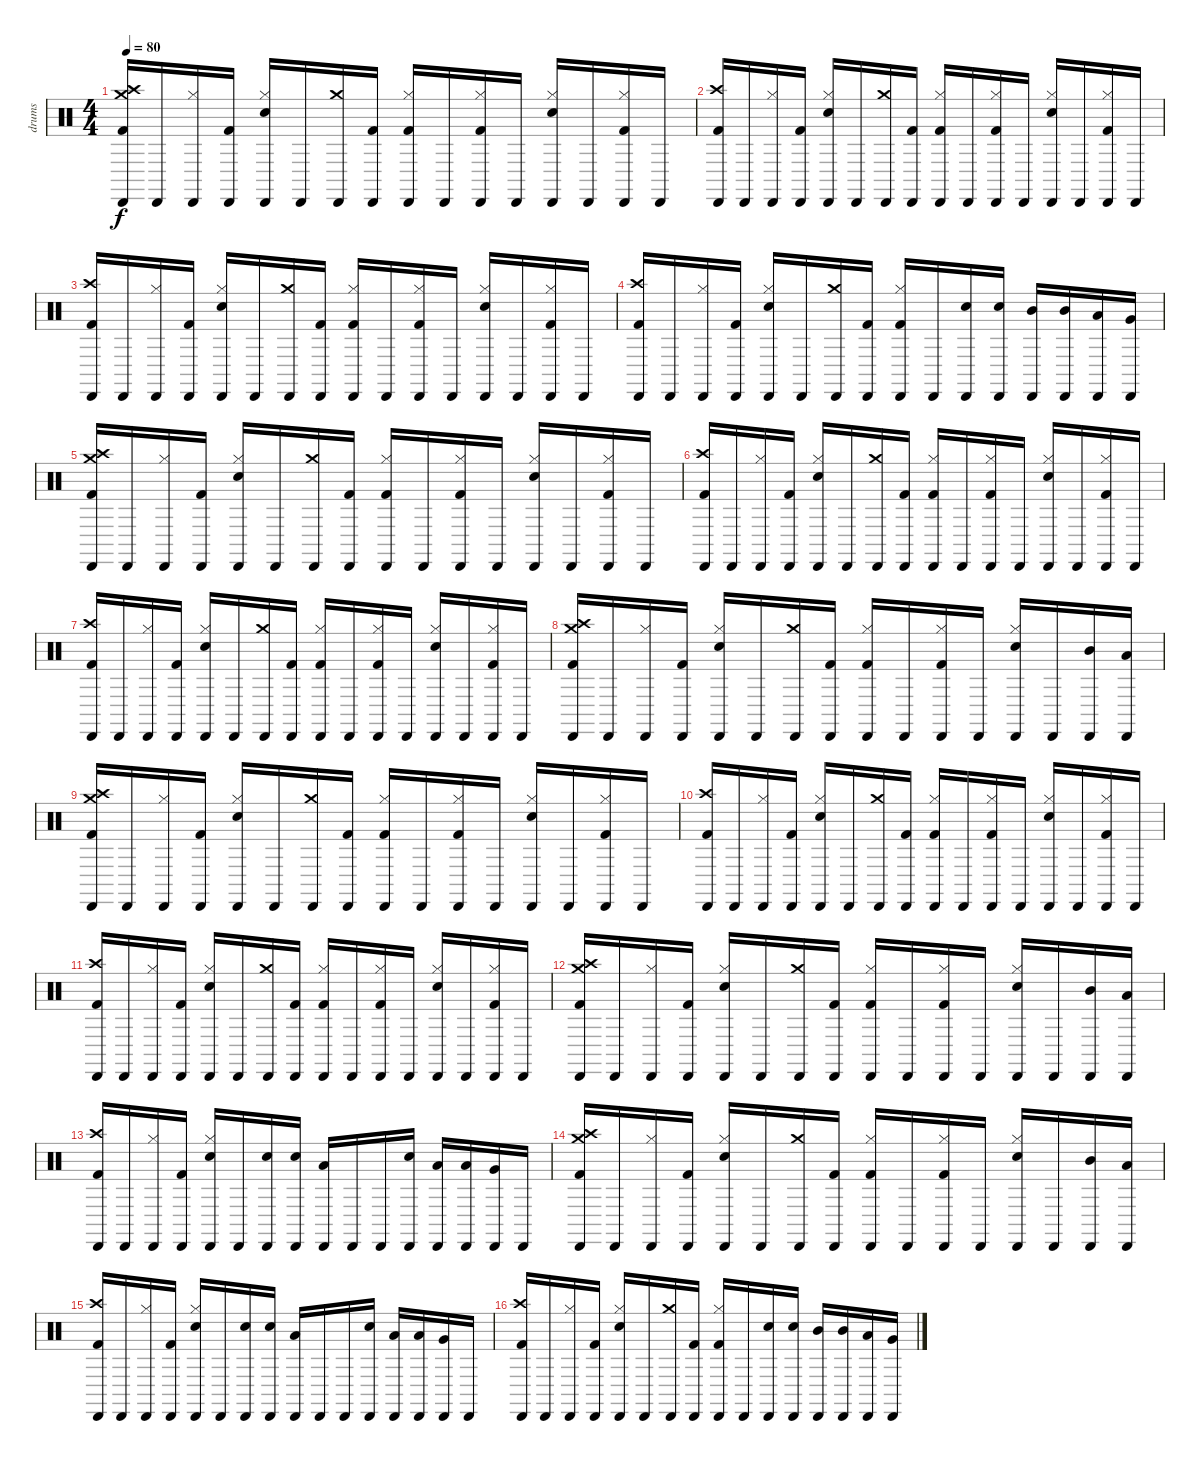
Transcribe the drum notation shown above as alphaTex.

\track ("drums" "drums") {instrument percussion}
\staff {score}
\articulation defaults
\ts (4 4)
\tempo 80
\clef neutral
\ks c
("Cabasa (hit)" "Crash high (hit)" "Kick (hit) 2" "Crash medium (hit)").16{dy f} "Cabasa (hit)".16 ("Cabasa (hit)" "Hi-Hat (closed)").16 ("Cabasa (hit)" "Kick (hit) 2").16 ("Cabasa (hit)" "Hi-Hat (closed)" "Electric Snare (hit)").16 "Cabasa (hit)".16 ("Cabasa (hit)" "Crash medium (hit)").16 ("Cabasa (hit)" "Kick (hit) 2").16 ("Cabasa (hit)" "Hi-Hat (closed)" "Kick (hit) 2").16 "Cabasa (hit)".16 ("Cabasa (hit)" "Hi-Hat (closed)" "Kick (hit) 2").16 "Cabasa (hit)".16 ("Cabasa (hit)" "Hi-Hat (closed)" "Electric Snare (hit)").16 "Cabasa (hit)".16 ("Cabasa (hit)" "Hi-Hat (closed)" "Kick (hit) 2").16 "Cabasa (hit)".16 |
("Cabasa (hit)" "Crash high (hit)" "Kick (hit) 2").16 "Cabasa (hit)".16 ("Cabasa (hit)" "Hi-Hat (closed)").16 ("Cabasa (hit)" "Kick (hit) 2").16 ("Cabasa (hit)" "Hi-Hat (closed)" "Electric Snare (hit)").16 "Cabasa (hit)".16 ("Cabasa (hit)" "Crash medium (hit)").16 ("Cabasa (hit)" "Kick (hit) 2").16 ("Cabasa (hit)" "Hi-Hat (closed)" "Kick (hit) 2").16 "Cabasa (hit)".16 ("Cabasa (hit)" "Hi-Hat (closed)" "Kick (hit) 2").16 "Cabasa (hit)".16 ("Cabasa (hit)" "Hi-Hat (closed)" "Electric Snare (hit)").16 "Cabasa (hit)".16 ("Cabasa (hit)" "Hi-Hat (closed)" "Kick (hit) 2").16 "Cabasa (hit)".16 |
("Cabasa (hit)" "Crash high (hit)" "Kick (hit) 2").16 "Cabasa (hit)".16 ("Cabasa (hit)" "Hi-Hat (closed)").16 ("Cabasa (hit)" "Kick (hit) 2").16 ("Cabasa (hit)" "Hi-Hat (closed)" "Electric Snare (hit)").16 "Cabasa (hit)".16 ("Cabasa (hit)" "Crash medium (hit)").16 ("Cabasa (hit)" "Kick (hit) 2").16 ("Cabasa (hit)" "Hi-Hat (closed)" "Kick (hit) 2").16 "Cabasa (hit)".16 ("Cabasa (hit)" "Hi-Hat (closed)" "Kick (hit) 2").16 "Cabasa (hit)".16 ("Cabasa (hit)" "Hi-Hat (closed)" "Electric Snare (hit)").16 "Cabasa (hit)".16 ("Cabasa (hit)" "Hi-Hat (closed)" "Kick (hit) 2").16 "Cabasa (hit)".16 |
("Cabasa (hit)" "Crash high (hit)" "Kick (hit) 2").16 "Cabasa (hit)".16 ("Cabasa (hit)" "Hi-Hat (closed)").16 ("Cabasa (hit)" "Kick (hit) 2").16 ("Cabasa (hit)" "Hi-Hat (closed)" "Electric Snare (hit)").16 "Cabasa (hit)".16 ("Cabasa (hit)" "Crash medium (hit)").16 ("Cabasa (hit)" "Kick (hit) 2").16 ("Cabasa (hit)" "Hi-Hat (closed)" "Kick (hit) 2").16 "Cabasa (hit)".16 ("Cabasa (hit)" "Electric Snare (hit)").16 ("Cabasa (hit)" "Electric Snare (hit)").16 ("Cabasa (hit)" "Mid Tom (hit)").16 ("Cabasa (hit)" "Mid Tom (hit)").16 ("Cabasa (hit)" "Low Tom (hit)").16 ("Cabasa (hit)" "Very Low Tom (hit)").16 |
("Cabasa (hit)" "Crash high (hit)" "Kick (hit) 2" "Crash medium (hit)").16 "Cabasa (hit)".16 ("Cabasa (hit)" "Hi-Hat (closed)").16 ("Cabasa (hit)" "Kick (hit) 2").16 ("Cabasa (hit)" "Hi-Hat (closed)" "Electric Snare (hit)").16 "Cabasa (hit)".16 ("Cabasa (hit)" "Crash medium (hit)").16 ("Cabasa (hit)" "Kick (hit) 2").16 ("Cabasa (hit)" "Hi-Hat (closed)" "Kick (hit) 2").16 "Cabasa (hit)".16 ("Cabasa (hit)" "Hi-Hat (closed)" "Kick (hit) 2").16 "Cabasa (hit)".16 ("Cabasa (hit)" "Hi-Hat (closed)" "Electric Snare (hit)").16 "Cabasa (hit)".16 ("Cabasa (hit)" "Hi-Hat (closed)" "Kick (hit) 2").16 "Cabasa (hit)".16 |
("Cabasa (hit)" "Crash high (hit)" "Kick (hit) 2").16 "Cabasa (hit)".16 ("Cabasa (hit)" "Hi-Hat (closed)").16 ("Cabasa (hit)" "Kick (hit) 2").16 ("Cabasa (hit)" "Hi-Hat (closed)" "Electric Snare (hit)").16 "Cabasa (hit)".16 ("Cabasa (hit)" "Crash medium (hit)").16 ("Cabasa (hit)" "Kick (hit) 2").16 ("Cabasa (hit)" "Hi-Hat (closed)" "Kick (hit) 2").16 "Cabasa (hit)".16 ("Cabasa (hit)" "Hi-Hat (closed)" "Kick (hit) 2").16 "Cabasa (hit)".16 ("Cabasa (hit)" "Hi-Hat (closed)" "Electric Snare (hit)").16 "Cabasa (hit)".16 ("Cabasa (hit)" "Hi-Hat (closed)" "Kick (hit) 2").16 "Cabasa (hit)".16 |
("Cabasa (hit)" "Crash high (hit)" "Kick (hit) 2").16 "Cabasa (hit)".16 ("Cabasa (hit)" "Hi-Hat (closed)").16 ("Cabasa (hit)" "Kick (hit) 2").16 ("Cabasa (hit)" "Hi-Hat (closed)" "Electric Snare (hit)").16 "Cabasa (hit)".16 ("Cabasa (hit)" "Crash medium (hit)").16 ("Cabasa (hit)" "Kick (hit) 2").16 ("Cabasa (hit)" "Hi-Hat (closed)" "Kick (hit) 2").16 "Cabasa (hit)".16 ("Cabasa (hit)" "Hi-Hat (closed)" "Kick (hit) 2").16 "Cabasa (hit)".16 ("Cabasa (hit)" "Hi-Hat (closed)" "Electric Snare (hit)").16 "Cabasa (hit)".16 ("Cabasa (hit)" "Hi-Hat (closed)" "Kick (hit) 2").16 "Cabasa (hit)".16 |
("Cabasa (hit)" "Crash high (hit)" "Kick (hit) 2" "Crash medium (hit)").16 "Cabasa (hit)".16 ("Cabasa (hit)" "Hi-Hat (closed)").16 ("Cabasa (hit)" "Kick (hit) 2").16 ("Cabasa (hit)" "Hi-Hat (closed)" "Electric Snare (hit)").16 "Cabasa (hit)".16 ("Cabasa (hit)" "Crash medium (hit)").16 ("Cabasa (hit)" "Kick (hit) 2").16 ("Cabasa (hit)" "Hi-Hat (closed)" "Kick (hit) 2").16 "Cabasa (hit)".16 ("Cabasa (hit)" "Hi-Hat (closed)" "Kick (hit) 2").16 "Cabasa (hit)".16 ("Cabasa (hit)" "Hi-Hat (closed)" "Electric Snare (hit)").16 "Cabasa (hit)".16 ("Cabasa (hit)" "Mid Tom (hit)").16 ("Cabasa (hit)" "Low Tom (hit)").16 |
("Cabasa (hit)" "Crash high (hit)" "Kick (hit) 2" "Crash medium (hit)").16 "Cabasa (hit)".16 ("Cabasa (hit)" "Hi-Hat (closed)").16 ("Cabasa (hit)" "Kick (hit) 2").16 ("Cabasa (hit)" "Hi-Hat (closed)" "Electric Snare (hit)").16 "Cabasa (hit)".16 ("Cabasa (hit)" "Crash medium (hit)").16 ("Cabasa (hit)" "Kick (hit) 2").16 ("Cabasa (hit)" "Hi-Hat (closed)" "Kick (hit) 2").16 "Cabasa (hit)".16 ("Cabasa (hit)" "Hi-Hat (closed)" "Kick (hit) 2").16 "Cabasa (hit)".16 ("Cabasa (hit)" "Hi-Hat (closed)" "Electric Snare (hit)").16 "Cabasa (hit)".16 ("Cabasa (hit)" "Hi-Hat (closed)" "Kick (hit) 2").16 "Cabasa (hit)".16 |
("Cabasa (hit)" "Crash high (hit)" "Kick (hit) 2").16 "Cabasa (hit)".16 ("Cabasa (hit)" "Hi-Hat (closed)").16 ("Cabasa (hit)" "Kick (hit) 2").16 ("Cabasa (hit)" "Hi-Hat (closed)" "Electric Snare (hit)").16 "Cabasa (hit)".16 ("Cabasa (hit)" "Crash medium (hit)").16 ("Cabasa (hit)" "Kick (hit) 2").16 ("Cabasa (hit)" "Hi-Hat (closed)" "Kick (hit) 2").16 "Cabasa (hit)".16 ("Cabasa (hit)" "Hi-Hat (closed)" "Kick (hit) 2").16 "Cabasa (hit)".16 ("Cabasa (hit)" "Hi-Hat (closed)" "Electric Snare (hit)").16 "Cabasa (hit)".16 ("Cabasa (hit)" "Hi-Hat (closed)" "Kick (hit) 2").16 "Cabasa (hit)".16 |
("Cabasa (hit)" "Crash high (hit)" "Kick (hit) 2").16 "Cabasa (hit)".16 ("Cabasa (hit)" "Hi-Hat (closed)").16 ("Cabasa (hit)" "Kick (hit) 2").16 ("Cabasa (hit)" "Hi-Hat (closed)" "Electric Snare (hit)").16 "Cabasa (hit)".16 ("Cabasa (hit)" "Crash medium (hit)").16 ("Cabasa (hit)" "Kick (hit) 2").16 ("Cabasa (hit)" "Hi-Hat (closed)" "Kick (hit) 2").16 "Cabasa (hit)".16 ("Cabasa (hit)" "Hi-Hat (closed)" "Kick (hit) 2").16 "Cabasa (hit)".16 ("Cabasa (hit)" "Hi-Hat (closed)" "Electric Snare (hit)").16 "Cabasa (hit)".16 ("Cabasa (hit)" "Hi-Hat (closed)" "Kick (hit) 2").16 "Cabasa (hit)".16 |
("Cabasa (hit)" "Crash high (hit)" "Kick (hit) 2" "Crash medium (hit)").16 "Cabasa (hit)".16 ("Cabasa (hit)" "Hi-Hat (closed)").16 ("Cabasa (hit)" "Kick (hit) 2").16 ("Cabasa (hit)" "Hi-Hat (closed)" "Electric Snare (hit)").16 "Cabasa (hit)".16 ("Cabasa (hit)" "Crash medium (hit)").16 ("Cabasa (hit)" "Kick (hit) 2").16 ("Cabasa (hit)" "Hi-Hat (closed)" "Kick (hit) 2").16 "Cabasa (hit)".16 ("Cabasa (hit)" "Hi-Hat (closed)" "Kick (hit) 2").16 "Cabasa (hit)".16 ("Cabasa (hit)" "Hi-Hat (closed)" "Electric Snare (hit)").16 "Cabasa (hit)".16 ("Cabasa (hit)" "Mid Tom (hit)").16 ("Cabasa (hit)" "Low Tom (hit)").16 |
("Cabasa (hit)" "Crash high (hit)" "Kick (hit) 2").16 "Cabasa (hit)".16 ("Cabasa (hit)" "Hi-Hat (closed)").16 ("Cabasa (hit)" "Kick (hit) 2").16 ("Cabasa (hit)" "Hi-Hat (closed)" "Electric Snare (hit)").16 "Cabasa (hit)".16 ("Cabasa (hit)" "Electric Snare (hit)").16 ("Cabasa (hit)" "Electric Snare (hit)").16 ("Cabasa (hit)" "Low Tom (hit)").16 "Cabasa (hit)".16 "Cabasa (hit)".16 ("Cabasa (hit)" "Electric Snare (hit)").16 ("Cabasa (hit)" "Low Tom (hit)").16 ("Cabasa (hit)" "Low Tom (hit)").16 ("Cabasa (hit)" "Very Low Tom (hit)").16 "Cabasa (hit)".16 |
("Cabasa (hit)" "Crash high (hit)" "Kick (hit) 2" "Crash medium (hit)").16 "Cabasa (hit)".16 ("Cabasa (hit)" "Hi-Hat (closed)").16 ("Cabasa (hit)" "Kick (hit) 2").16 ("Cabasa (hit)" "Hi-Hat (closed)" "Electric Snare (hit)").16 "Cabasa (hit)".16 ("Cabasa (hit)" "Crash medium (hit)").16 ("Cabasa (hit)" "Kick (hit) 2").16 ("Cabasa (hit)" "Hi-Hat (closed)" "Kick (hit) 2").16 "Cabasa (hit)".16 ("Cabasa (hit)" "Hi-Hat (closed)" "Kick (hit) 2").16 "Cabasa (hit)".16 ("Cabasa (hit)" "Hi-Hat (closed)" "Electric Snare (hit)").16 "Cabasa (hit)".16 ("Cabasa (hit)" "Mid Tom (hit)").16 ("Cabasa (hit)" "Low Tom (hit)").16 |
("Cabasa (hit)" "Crash high (hit)" "Kick (hit) 2").16 "Cabasa (hit)".16 ("Cabasa (hit)" "Hi-Hat (closed)").16 ("Cabasa (hit)" "Kick (hit) 2").16 ("Cabasa (hit)" "Hi-Hat (closed)" "Electric Snare (hit)").16 "Cabasa (hit)".16 ("Cabasa (hit)" "Electric Snare (hit)").16 ("Cabasa (hit)" "Electric Snare (hit)").16 ("Cabasa (hit)" "Low Tom (hit)").16 "Cabasa (hit)".16 "Cabasa (hit)".16 ("Cabasa (hit)" "Electric Snare (hit)").16 ("Cabasa (hit)" "Low Tom (hit)").16 ("Cabasa (hit)" "Low Tom (hit)").16 ("Cabasa (hit)" "Very Low Tom (hit)").16 "Cabasa (hit)".16 |
("Cabasa (hit)" "Crash high (hit)" "Kick (hit) 2").16 "Cabasa (hit)".16 ("Cabasa (hit)" "Hi-Hat (closed)").16 ("Cabasa (hit)" "Kick (hit) 2").16 ("Cabasa (hit)" "Hi-Hat (closed)" "Electric Snare (hit)").16 "Cabasa (hit)".16 ("Cabasa (hit)" "Crash medium (hit)").16 ("Cabasa (hit)" "Kick (hit) 2").16 ("Cabasa (hit)" "Hi-Hat (closed)" "Kick (hit) 2").16 "Cabasa (hit)".16 ("Cabasa (hit)" "Electric Snare (hit)").16 ("Cabasa (hit)" "Electric Snare (hit)").16 ("Cabasa (hit)" "Mid Tom (hit)").16 ("Cabasa (hit)" "Mid Tom (hit)").16 ("Cabasa (hit)" "Low Tom (hit)").16 ("Cabasa (hit)" "Very Low Tom (hit)").16
